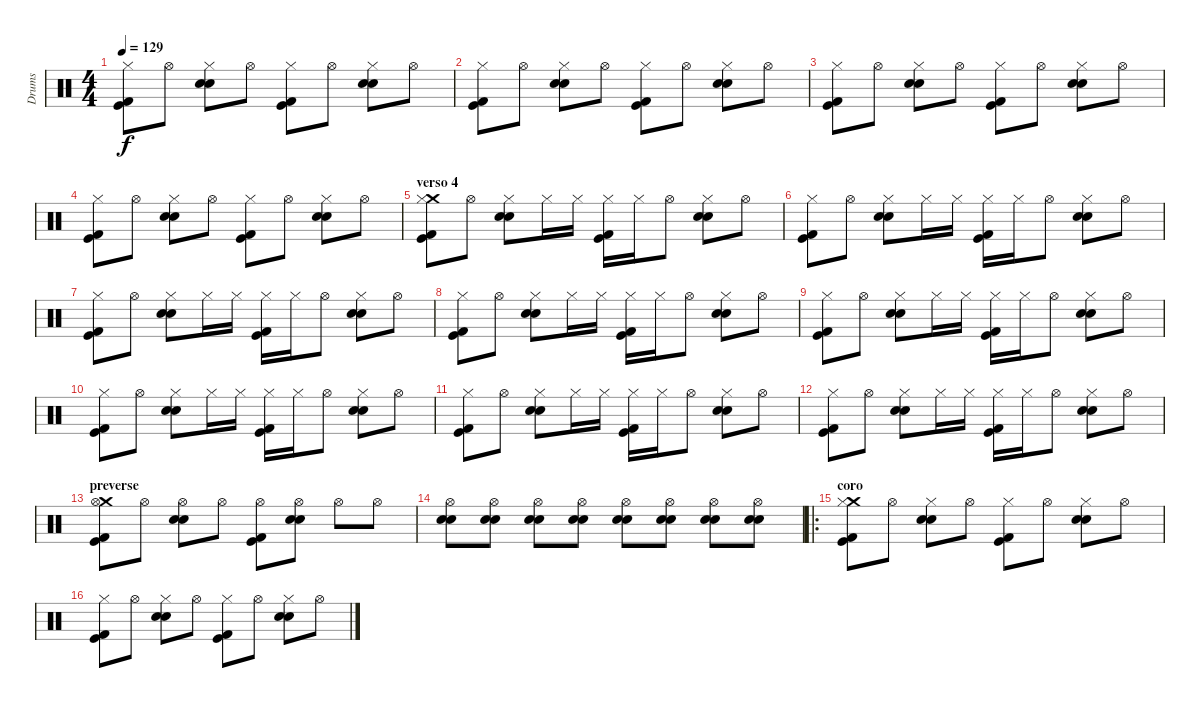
\track ("Drums" "Drums") {instrument percussion}
\staff {score}
\articulation defaults
\ts (4 4)
\tempo 129
\clef neutral
\ks c
("Hi-Hat (closed)" "Kick (hit) 2" "Kick (hit)").8{dy f} "Hi-Hat (open)".8 ("Hi-Hat (closed)" "Snare (hit) 2" "Snare (hit) 2").8 "Hi-Hat (open)".8 ("Hi-Hat (closed)" "Kick (hit) 2" "Kick (hit)").8 "Hi-Hat (open)".8 ("Hi-Hat (closed)" "Snare (hit) 2" "Snare (hit) 2").8 "Hi-Hat (open)".8 |
("Hi-Hat (closed)" "Kick (hit) 2" "Kick (hit)").8 "Hi-Hat (open)".8 ("Hi-Hat (closed)" "Snare (hit) 2" "Snare (hit) 2").8 "Hi-Hat (open)".8 ("Hi-Hat (closed)" "Kick (hit) 2" "Kick (hit)").8 "Hi-Hat (open)".8 ("Hi-Hat (closed)" "Snare (hit) 2" "Snare (hit) 2").8 "Hi-Hat (open)".8 |
("Hi-Hat (closed)" "Kick (hit) 2" "Kick (hit)").8 "Hi-Hat (open)".8 ("Hi-Hat (closed)" "Snare (hit) 2" "Snare (hit) 2").8 "Hi-Hat (open)".8 ("Hi-Hat (closed)" "Kick (hit) 2" "Kick (hit)").8 "Hi-Hat (open)".8 ("Hi-Hat (closed)" "Snare (hit) 2" "Snare (hit) 2").8 "Hi-Hat (open)".8 |
("Hi-Hat (closed)" "Kick (hit) 2" "Kick (hit)").8 "Hi-Hat (open)".8 ("Hi-Hat (closed)" "Snare (hit) 2" "Snare (hit) 2").8 "Hi-Hat (open)".8 ("Hi-Hat (closed)" "Kick (hit) 2" "Kick (hit)").8 "Hi-Hat (open)".8 ("Hi-Hat (closed)" "Snare (hit) 2" "Snare (hit) 2").8 "Hi-Hat (open)".8 |
\section ("" "verso 4")
("Crash medium (hit)" "Hi-Hat (closed)" "Kick (hit) 2" "Kick (hit)").8 "Hi-Hat (open)".8 ("Hi-Hat (closed)" "Snare (hit) 2" "Snare (hit) 2").8 "Hi-Hat (closed)".16 "Hi-Hat (closed)".16 ("Hi-Hat (closed)" "Kick (hit)" "Kick (hit) 2").16 "Hi-Hat (closed)".16 "Hi-Hat (open)".8 ("Hi-Hat (closed)" "Snare (hit) 2" "Snare (hit) 2").8 "Hi-Hat (open)".8 |
("Hi-Hat (closed)" "Kick (hit) 2" "Kick (hit)").8 "Hi-Hat (open)".8 ("Hi-Hat (closed)" "Snare (hit) 2" "Snare (hit) 2").8 "Hi-Hat (closed)".16 "Hi-Hat (closed)".16 ("Hi-Hat (closed)" "Kick (hit)" "Kick (hit) 2").16 "Hi-Hat (closed)".16 "Hi-Hat (open)".8 ("Hi-Hat (closed)" "Snare (hit) 2" "Snare (hit) 2").8 "Hi-Hat (open)".8 |
("Hi-Hat (closed)" "Kick (hit) 2" "Kick (hit)").8 "Hi-Hat (open)".8 ("Hi-Hat (closed)" "Snare (hit) 2" "Snare (hit) 2").8 "Hi-Hat (closed)".16 "Hi-Hat (closed)".16 ("Hi-Hat (closed)" "Kick (hit)" "Kick (hit) 2").16 "Hi-Hat (closed)".16 "Hi-Hat (open)".8 ("Hi-Hat (closed)" "Snare (hit) 2" "Snare (hit) 2").8 "Hi-Hat (open)".8 |
("Hi-Hat (closed)" "Kick (hit) 2" "Kick (hit)").8 "Hi-Hat (open)".8 ("Hi-Hat (closed)" "Snare (hit) 2" "Snare (hit) 2").8 "Hi-Hat (closed)".16 "Hi-Hat (closed)".16 ("Hi-Hat (closed)" "Kick (hit)" "Kick (hit) 2").16 "Hi-Hat (closed)".16 "Hi-Hat (open)".8 ("Hi-Hat (closed)" "Snare (hit) 2" "Snare (hit) 2").8 "Hi-Hat (open)".8 |
("Hi-Hat (closed)" "Kick (hit) 2" "Kick (hit)").8 "Hi-Hat (open)".8 ("Hi-Hat (closed)" "Snare (hit) 2" "Snare (hit) 2").8 "Hi-Hat (closed)".16 "Hi-Hat (closed)".16 ("Hi-Hat (closed)" "Kick (hit)" "Kick (hit) 2").16 "Hi-Hat (closed)".16 "Hi-Hat (open)".8 ("Hi-Hat (closed)" "Snare (hit) 2" "Snare (hit) 2").8 "Hi-Hat (open)".8 |
("Hi-Hat (closed)" "Kick (hit) 2" "Kick (hit)").8 "Hi-Hat (open)".8 ("Hi-Hat (closed)" "Snare (hit) 2" "Snare (hit) 2").8 "Hi-Hat (closed)".16 "Hi-Hat (closed)".16 ("Hi-Hat (closed)" "Kick (hit)" "Kick (hit) 2").16 "Hi-Hat (closed)".16 "Hi-Hat (open)".8 ("Hi-Hat (closed)" "Snare (hit) 2" "Snare (hit) 2").8 "Hi-Hat (open)".8 |
("Hi-Hat (closed)" "Kick (hit) 2" "Kick (hit)").8 "Hi-Hat (open)".8 ("Hi-Hat (closed)" "Snare (hit) 2" "Snare (hit) 2").8 "Hi-Hat (closed)".16 "Hi-Hat (closed)".16 ("Hi-Hat (closed)" "Kick (hit)" "Kick (hit) 2").16 "Hi-Hat (closed)".16 "Hi-Hat (open)".8 ("Hi-Hat (closed)" "Snare (hit) 2" "Snare (hit) 2").8 "Hi-Hat (open)".8 |
("Hi-Hat (closed)" "Kick (hit) 2" "Kick (hit)").8 "Hi-Hat (open)".8 ("Hi-Hat (closed)" "Snare (hit) 2" "Snare (hit) 2").8 "Hi-Hat (closed)".16 "Hi-Hat (closed)".16 ("Hi-Hat (closed)" "Kick (hit)" "Kick (hit) 2").16 "Hi-Hat (closed)".16 "Hi-Hat (open)".8 ("Hi-Hat (closed)" "Snare (hit) 2" "Snare (hit) 2").8 "Hi-Hat (open)".8 |
\section ("" "preverse")
("Crash medium (hit)" "Hi-Hat (open)" "Kick (hit) 2" "Kick (hit)").8 "Hi-Hat (open)".8 ("Hi-Hat (open)" "Snare (hit) 2" "Snare (hit) 2").8 "Hi-Hat (open)".8 ("Hi-Hat (open)" "Kick (hit) 2" "Kick (hit)").8 ("Hi-Hat (open)" "Snare (hit) 2" "Snare (hit) 2").8 "Hi-Hat (open)".8 "Hi-Hat (open)".8 |
("Hi-Hat (open)" "Snare (hit) 2" "Snare (hit) 2").8 ("Hi-Hat (open)" "Snare (hit) 2" "Snare (hit) 2").8 ("Hi-Hat (open)" "Snare (hit) 2" "Snare (hit) 2").8 ("Hi-Hat (open)" "Snare (hit) 2" "Snare (hit) 2").8 ("Hi-Hat (open)" "Snare (hit) 2" "Snare (hit) 2").8 ("Hi-Hat (open)" "Snare (hit) 2" "Snare (hit) 2").8 ("Hi-Hat (open)" "Snare (hit) 2" "Snare (hit) 2").8 ("Hi-Hat (open)" "Snare (hit) 2" "Snare (hit) 2").8 |
\ro
\section ("" "coro")
("Crash medium (hit)" "Hi-Hat (closed)" "Kick (hit) 2" "Kick (hit)").8 "Hi-Hat (open)".8 ("Hi-Hat (closed)" "Snare (hit) 2" "Snare (hit) 2").8 "Hi-Hat (open)".8 ("Hi-Hat (closed)" "Kick (hit) 2" "Kick (hit)").8 "Hi-Hat (open)".8 ("Hi-Hat (closed)" "Snare (hit) 2" "Snare (hit) 2").8 "Hi-Hat (open)".8 |
("Hi-Hat (closed)" "Kick (hit) 2" "Kick (hit)").8 "Hi-Hat (open)".8 ("Hi-Hat (closed)" "Snare (hit) 2" "Snare (hit) 2").8 "Hi-Hat (open)".8 ("Hi-Hat (closed)" "Kick (hit) 2" "Kick (hit)").8 "Hi-Hat (open)".8 ("Hi-Hat (closed)" "Snare (hit) 2" "Snare (hit) 2").8 "Hi-Hat (open)".8
